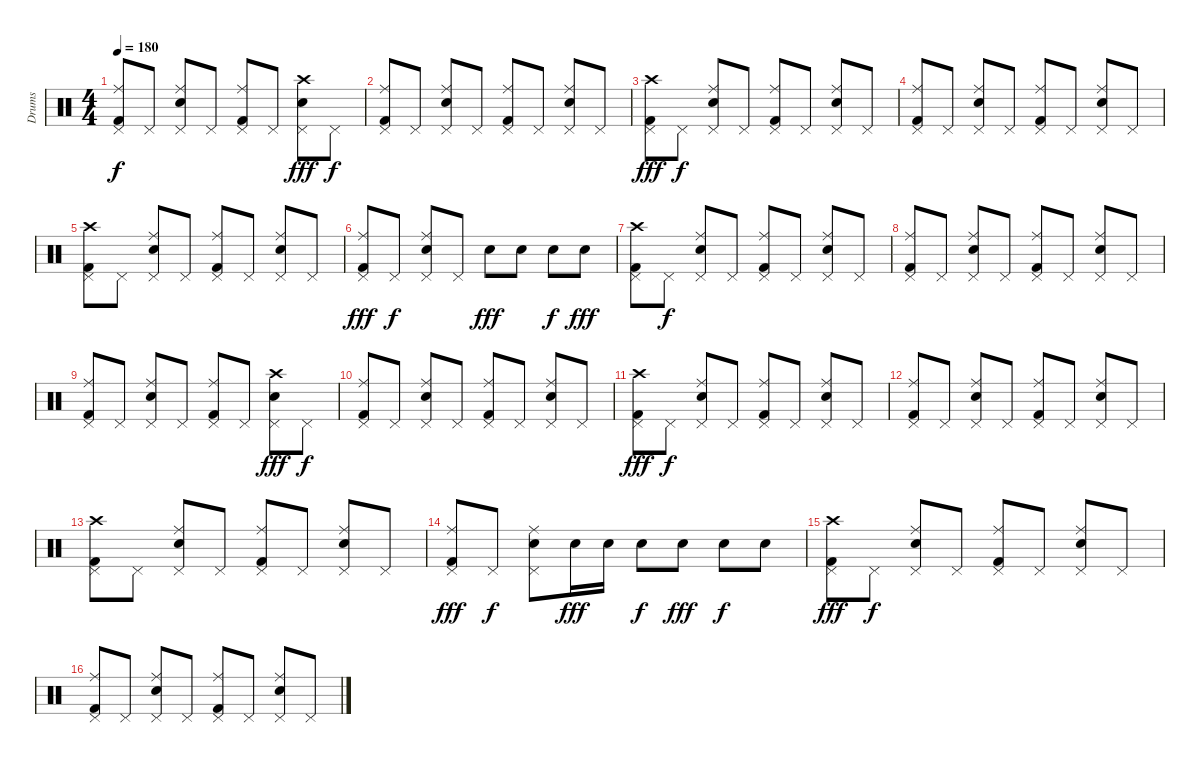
\track ("Drums" "Drums") {instrument percussion}
\staff {score}
\articulation defaults
\ts (4 4)
\tempo 180
\clef neutral
\ks c
("Ride (middle)" "Pedal Hi-Hat (hit)" "Kick (hit) 2").8{dy f} "Pedal Hi-Hat (hit)".8 ("Ride (middle)" "Pedal Hi-Hat (hit)" "Electric Snare (hit)").8 "Pedal Hi-Hat (hit)".8 ("Ride (middle)" "Pedal Hi-Hat (hit)" "Kick (hit) 2").8 "Pedal Hi-Hat (hit)".8 ("Crash high (hit)" "Pedal Hi-Hat (hit)" "Electric Snare (hit)").8{dy fff} "Pedal Hi-Hat (hit)".8{dy f} |
("Ride (middle)" "Pedal Hi-Hat (hit)" "Kick (hit) 2").8 "Pedal Hi-Hat (hit)".8 ("Ride (middle)" "Pedal Hi-Hat (hit)" "Electric Snare (hit)").8 "Pedal Hi-Hat (hit)".8 ("Ride (middle)" "Pedal Hi-Hat (hit)" "Kick (hit) 2").8 "Pedal Hi-Hat (hit)".8 ("Ride (middle)" "Pedal Hi-Hat (hit)" "Electric Snare (hit)").8 "Pedal Hi-Hat (hit)".8 |
("Crash high (hit)" "Pedal Hi-Hat (hit)" "Kick (hit) 2").8{dy fff} "Pedal Hi-Hat (hit)".8{dy f} ("Ride (middle)" "Pedal Hi-Hat (hit)" "Electric Snare (hit)").8 "Pedal Hi-Hat (hit)".8 ("Ride (middle)" "Pedal Hi-Hat (hit)" "Kick (hit) 2").8 "Pedal Hi-Hat (hit)".8 ("Ride (middle)" "Pedal Hi-Hat (hit)" "Electric Snare (hit)").8 "Pedal Hi-Hat (hit)".8 |
("Ride (middle)" "Pedal Hi-Hat (hit)" "Kick (hit) 2").8 "Pedal Hi-Hat (hit)".8 ("Ride (middle)" "Pedal Hi-Hat (hit)" "Electric Snare (hit)").8 "Pedal Hi-Hat (hit)".8 ("Ride (middle)" "Pedal Hi-Hat (hit)" "Kick (hit) 2").8 "Pedal Hi-Hat (hit)".8 ("Ride (middle)" "Pedal Hi-Hat (hit)" "Electric Snare (hit)").8 "Pedal Hi-Hat (hit)".8 |
("Crash high (hit)" "Pedal Hi-Hat (hit)" "Kick (hit) 2").8 "Pedal Hi-Hat (hit)".8 ("Ride (middle)" "Pedal Hi-Hat (hit)" "Electric Snare (hit)").8 "Pedal Hi-Hat (hit)".8 ("Ride (middle)" "Pedal Hi-Hat (hit)" "Kick (hit) 2").8 "Pedal Hi-Hat (hit)".8 ("Ride (middle)" "Pedal Hi-Hat (hit)" "Electric Snare (hit)").8 "Pedal Hi-Hat (hit)".8 |
("Ride (middle)" "Pedal Hi-Hat (hit)" "Kick (hit) 2").8{dy fff} "Pedal Hi-Hat (hit)".8{dy f} ("Ride (middle)" "Pedal Hi-Hat (hit)" "Electric Snare (hit)").8 "Pedal Hi-Hat (hit)".8 "Electric Snare (hit)".8{dy fff} "Electric Snare (hit)".8 "Electric Snare (hit)".8{dy f} "Electric Snare (hit)".8{dy fff} |
("Crash high (hit)" "Pedal Hi-Hat (hit)" "Kick (hit) 2").8 "Pedal Hi-Hat (hit)".8{dy f} ("Ride (middle)" "Pedal Hi-Hat (hit)" "Electric Snare (hit)").8 "Pedal Hi-Hat (hit)".8 ("Ride (middle)" "Pedal Hi-Hat (hit)" "Kick (hit) 2").8 "Pedal Hi-Hat (hit)".8 ("Ride (middle)" "Pedal Hi-Hat (hit)" "Electric Snare (hit)").8 "Pedal Hi-Hat (hit)".8 |
("Ride (middle)" "Pedal Hi-Hat (hit)" "Kick (hit) 2").8 "Pedal Hi-Hat (hit)".8 ("Ride (middle)" "Pedal Hi-Hat (hit)" "Electric Snare (hit)").8 "Pedal Hi-Hat (hit)".8 ("Ride (middle)" "Pedal Hi-Hat (hit)" "Kick (hit) 2").8 "Pedal Hi-Hat (hit)".8 ("Ride (middle)" "Pedal Hi-Hat (hit)" "Electric Snare (hit)").8 "Pedal Hi-Hat (hit)".8 |
("Ride (middle)" "Pedal Hi-Hat (hit)" "Kick (hit) 2").8 "Pedal Hi-Hat (hit)".8 ("Ride (middle)" "Pedal Hi-Hat (hit)" "Electric Snare (hit)").8 "Pedal Hi-Hat (hit)".8 ("Ride (middle)" "Pedal Hi-Hat (hit)" "Kick (hit) 2").8 "Pedal Hi-Hat (hit)".8 ("Crash high (hit)" "Pedal Hi-Hat (hit)" "Electric Snare (hit)").8{dy fff} "Pedal Hi-Hat (hit)".8{dy f} |
("Ride (middle)" "Pedal Hi-Hat (hit)" "Kick (hit) 2").8 "Pedal Hi-Hat (hit)".8 ("Ride (middle)" "Pedal Hi-Hat (hit)" "Electric Snare (hit)").8 "Pedal Hi-Hat (hit)".8 ("Ride (middle)" "Pedal Hi-Hat (hit)" "Kick (hit) 2").8 "Pedal Hi-Hat (hit)".8 ("Ride (middle)" "Pedal Hi-Hat (hit)" "Electric Snare (hit)").8 "Pedal Hi-Hat (hit)".8 |
("Crash high (hit)" "Pedal Hi-Hat (hit)" "Kick (hit) 2").8{dy fff} "Pedal Hi-Hat (hit)".8{dy f} ("Ride (middle)" "Pedal Hi-Hat (hit)" "Electric Snare (hit)").8 "Pedal Hi-Hat (hit)".8 ("Ride (middle)" "Pedal Hi-Hat (hit)" "Kick (hit) 2").8 "Pedal Hi-Hat (hit)".8 ("Ride (middle)" "Pedal Hi-Hat (hit)" "Electric Snare (hit)").8 "Pedal Hi-Hat (hit)".8 |
("Ride (middle)" "Pedal Hi-Hat (hit)" "Kick (hit) 2").8 "Pedal Hi-Hat (hit)".8 ("Ride (middle)" "Pedal Hi-Hat (hit)" "Electric Snare (hit)").8 "Pedal Hi-Hat (hit)".8 ("Ride (middle)" "Pedal Hi-Hat (hit)" "Kick (hit) 2").8 "Pedal Hi-Hat (hit)".8 ("Ride (middle)" "Pedal Hi-Hat (hit)" "Electric Snare (hit)").8 "Pedal Hi-Hat (hit)".8 |
("Crash high (hit)" "Pedal Hi-Hat (hit)" "Kick (hit) 2").8 "Pedal Hi-Hat (hit)".8 ("Ride (middle)" "Pedal Hi-Hat (hit)" "Electric Snare (hit)").8 "Pedal Hi-Hat (hit)".8 ("Ride (middle)" "Pedal Hi-Hat (hit)" "Kick (hit) 2").8 "Pedal Hi-Hat (hit)".8 ("Ride (middle)" "Pedal Hi-Hat (hit)" "Electric Snare (hit)").8 "Pedal Hi-Hat (hit)".8 |
("Ride (middle)" "Pedal Hi-Hat (hit)" "Kick (hit) 2").8{dy fff} "Pedal Hi-Hat (hit)".8{dy f} ("Ride (middle)" "Pedal Hi-Hat (hit)" "Electric Snare (hit)").8 "Electric Snare (hit)".16{dy fff} "Electric Snare (hit)".16 "Electric Snare (hit)".8{dy f} "Electric Snare (hit)".8{dy fff} "Electric Snare (hit)".8{dy f} "Electric Snare (hit)".8 |
("Crash high (hit)" "Pedal Hi-Hat (hit)" "Kick (hit) 2").8{dy fff} "Pedal Hi-Hat (hit)".8{dy f} ("Ride (middle)" "Pedal Hi-Hat (hit)" "Electric Snare (hit)").8 "Pedal Hi-Hat (hit)".8 ("Ride (middle)" "Pedal Hi-Hat (hit)" "Kick (hit) 2").8 "Pedal Hi-Hat (hit)".8 ("Ride (middle)" "Pedal Hi-Hat (hit)" "Electric Snare (hit)").8 "Pedal Hi-Hat (hit)".8 |
("Ride (middle)" "Pedal Hi-Hat (hit)" "Kick (hit) 2").8 "Pedal Hi-Hat (hit)".8 ("Ride (middle)" "Pedal Hi-Hat (hit)" "Electric Snare (hit)").8 "Pedal Hi-Hat (hit)".8 ("Ride (middle)" "Pedal Hi-Hat (hit)" "Kick (hit) 2").8 "Pedal Hi-Hat (hit)".8 ("Ride (middle)" "Pedal Hi-Hat (hit)" "Electric Snare (hit)").8 "Pedal Hi-Hat (hit)".8
